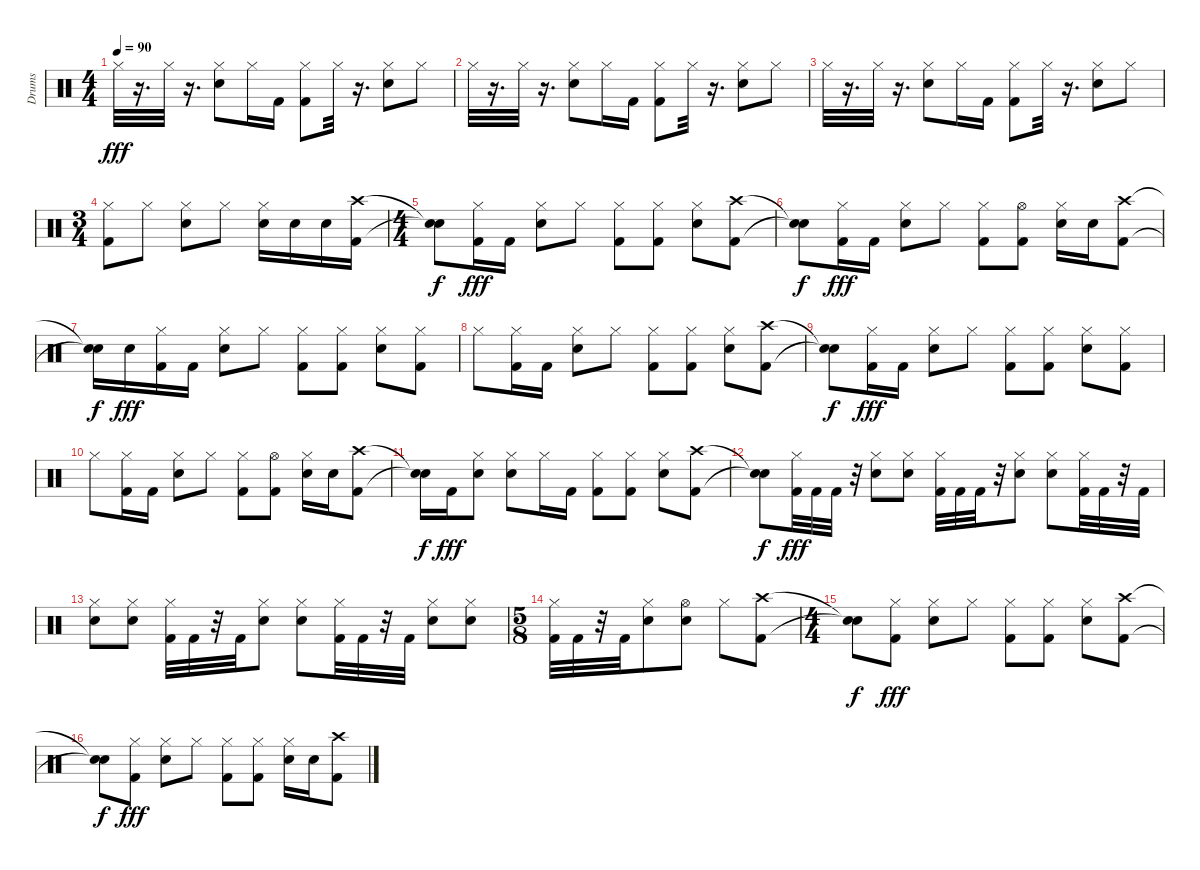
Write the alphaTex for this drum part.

\track ("Drums" "Drums") {instrument percussion}
\staff {score}
\articulation defaults
\ts (4 4)
\tempo 90
\clef neutral
\ks c "Hi-Hat (closed)".32{dy fff}
r.16{d} "Hi-Hat (closed)".32 r.16{d} ("Hi-Hat (closed)" "Electric Snare (hit)").8 "Hi-Hat (closed)".16 "Kick (hit) 2".16 ("Kick (hit) 2" "Hi-Hat (closed)").8 "Hi-Hat (closed)".32 r.16{d} ("Hi-Hat (closed)" "Snare (hit) 2").8 "Hi-Hat (closed)".8 |
"Hi-Hat (closed)".32 r.16{d} "Hi-Hat (closed)".32 r.16{d} ("Hi-Hat (closed)" "Electric Snare (hit)").8 "Hi-Hat (closed)".16 "Kick (hit) 2".16 ("Kick (hit) 2" "Hi-Hat (closed)").8 "Hi-Hat (closed)".32 r.16{d} ("Hi-Hat (closed)" "Snare (hit) 2").8 "Hi-Hat (closed)".8 |
"Hi-Hat (closed)".32 r.16{d} "Hi-Hat (closed)".32 r.16{d} ("Hi-Hat (closed)" "Electric Snare (hit)").8 "Hi-Hat (closed)".16 "Kick (hit) 2".16 ("Kick (hit) 2" "Hi-Hat (closed)").8 "Hi-Hat (closed)".32 r.16{d} ("Hi-Hat (closed)" "Snare (hit) 2").8 "Hi-Hat (closed)".8 |
\ts (3 4)
("Hi-Hat (closed)" "Kick (hit) 2").8 "Hi-Hat (closed)".8 ("Snare (hit) 2" "Hi-Hat (closed)").8 "Hi-Hat (closed)".8 ("Hi-Hat (closed)" "Snare (hit) 2").16 "Snare (hit) 2".16 "Electric Snare (hit)".16 ("Crash high (hit)" "Kick (hit) 2").16 |
\ts (4 4)
("Snare (hit)"{t} "Snare (hit)"{t}).8{dy f} ("Kick (hit) 2" "Hi-Hat (closed)").16{dy fff} "Kick (hit) 2".16 ("Hi-Hat (closed)" "Snare (hit) 2").8 "Hi-Hat (closed)".8 ("Kick (hit) 2" "Hi-Hat (closed)").8 ("Kick (hit) 2" "Hi-Hat (closed)").8 ("Hi-Hat (closed)" "Electric Snare (hit)").8 ("Crash high (hit)" "Kick (hit) 2").8 |
("Snare (hit)"{t} "Snare (hit)"{t}).8{dy f} ("Kick (hit) 2" "Hi-Hat (closed)").16{dy fff} "Kick (hit) 2".16 ("Electric Snare (hit)" "Hi-Hat (closed)").8 "Hi-Hat (closed)".8 ("Kick (hit) 2" "Hi-Hat (closed)").8 ("Kick (hit) 2" "Hi-Hat (open)").8 ("Hi-Hat (closed)" "Snare (hit) 2").16 "Electric Snare (hit)".16 ("Kick (hit) 2" "Crash high (hit)").8 |
("Snare (hit)"{t} "Snare (hit)"{t}).16{dy f} "Snare (hit) 2".16{dy fff} ("Hi-Hat (closed)" "Kick (hit) 2").16 "Kick (hit) 2".16 ("Electric Snare (hit)" "Hi-Hat (closed)").8 "Hi-Hat (closed)".8 ("Kick (hit) 2" "Hi-Hat (closed)").8 ("Hi-Hat (closed)" "Kick (hit) 2").8 ("Hi-Hat (closed)" "Electric Snare (hit)").8 ("Hi-Hat (closed)" "Kick (hit) 2").8 |
"Hi-Hat (closed)".8 ("Hi-Hat (closed)" "Kick (hit) 2").16 "Kick (hit) 2".16 ("Electric Snare (hit)" "Hi-Hat (closed)").8 "Hi-Hat (closed)".8 ("Kick (hit) 2" "Hi-Hat (closed)").8 ("Kick (hit) 2" "Hi-Hat (closed)").8 ("Hi-Hat (closed)" "Electric Snare (hit)").8 ("Kick (hit) 2" "Crash high (hit)").8 |
("Snare (hit)"{t} "Snare (hit)"{t}).8{dy f} ("Hi-Hat (closed)" "Kick (hit) 2").16{dy fff} "Kick (hit) 2".16 ("Electric Snare (hit)" "Hi-Hat (closed)").8 "Hi-Hat (closed)".8 ("Kick (hit) 2" "Hi-Hat (closed)").8 ("Kick (hit) 2" "Hi-Hat (closed)").8 ("Hi-Hat (closed)" "Electric Snare (hit)").8 ("Kick (hit) 2" "Hi-Hat (closed)").8 |
"Hi-Hat (closed)".8 ("Hi-Hat (closed)" "Kick (hit) 2").16 "Kick (hit) 2".16 ("Snare (hit) 2" "Hi-Hat (closed)").8 "Hi-Hat (closed)".8 ("Kick (hit) 2" "Hi-Hat (closed)").8 ("Kick (hit) 2" "Hi-Hat (open)").8 ("Hi-Hat (closed)" "Snare (hit) 2").16 "Snare (hit) 2".16 ("Crash high (hit)" "Kick (hit) 2").8 |
("Snare (hit)"{t} "Snare (hit)"{t}).16{dy f} "Kick (hit) 2".16{dy fff} ("Hi-Hat (closed)" "Snare (hit) 2").8 ("Hi-Hat (closed)" "Electric Snare (hit)").8 "Hi-Hat (closed)".16 "Kick (hit) 2".16 ("Kick (hit) 2" "Hi-Hat (closed)").8 ("Hi-Hat (closed)" "Kick (hit) 2").8 ("Electric Snare (hit)" "Hi-Hat (closed)").8 ("Crash high (hit)" "Kick (hit) 2").8 |
("Snare (hit)"{t} "Snare (hit)"{t}).8{dy f} ("Kick (hit) 2" "Hi-Hat (closed)").32{dy fff} "Kick (hit) 2".32 "Kick (hit) 2".32 r.32 ("Hi-Hat (closed)" "Snare (hit) 2").8 ("Snare (hit) 2" "Hi-Hat (closed)").8 ("Kick (hit) 2" "Hi-Hat (closed)").32 "Kick (hit) 2".32 "Kick (hit) 2".32 r.32 ("Snare (hit) 2" "Hi-Hat (closed)").8 ("Hi-Hat (closed)" "Snare (hit) 2").8 ("Hi-Hat (closed)" "Kick (hit) 2").32 "Kick (hit) 2".32 r.32 "Kick (hit) 2".32 |
("Snare (hit) 2" "Hi-Hat (closed)").8 ("Electric Snare (hit)" "Hi-Hat (closed)").8 ("Kick (hit) 2" "Hi-Hat (closed)").32 "Kick (hit) 2".32 r.32 "Kick (hit) 2".32 ("Electric Snare (hit)" "Hi-Hat (closed)").8 ("Hi-Hat (closed)" "Snare (hit) 2").8 ("Hi-Hat (closed)" "Kick (hit) 2").32 "Kick (hit) 2".32 r.32 "Kick (hit) 2".32 ("Hi-Hat (closed)" "Snare (hit) 2").8 ("Hi-Hat (closed)" "Electric Snare (hit)").8 |
\ts (5 8)
("Kick (hit) 2" "Hi-Hat (closed)").32 "Kick (hit) 2".32 r.32 "Kick (hit) 2".32 ("Hi-Hat (closed)" "Snare (hit) 2").8 ("Snare (hit) 2" "Hi-Hat (open)").8 "Hi-Hat (closed)".8 ("Kick (hit) 2" "Crash high (hit)").8 |
\ts (4 4)
("Snare (hit)"{t} "Snare (hit)"{t}).8{dy f} ("Kick (hit) 2" "Hi-Hat (closed)").8{dy fff} ("Hi-Hat (closed)" "Snare (hit) 2").8 "Hi-Hat (closed)".8 ("Kick (hit) 2" "Hi-Hat (closed)").8 ("Kick (hit) 2" "Hi-Hat (closed)").8 ("Hi-Hat (closed)" "Electric Snare (hit)").8 ("Kick (hit) 2" "Crash high (hit)").8 |
("Snare (hit)"{t} "Snare (hit)"{t}).8{dy f} ("Hi-Hat (closed)" "Kick (hit) 2").8{dy fff} ("Electric Snare (hit)" "Hi-Hat (closed)").8 "Hi-Hat (closed)".8 ("Kick (hit) 2" "Hi-Hat (closed)").8 ("Kick (hit) 2" "Hi-Hat (closed)").8 ("Hi-Hat (closed)" "Snare (hit) 2").16 "Electric Snare (hit)".16 ("Kick (hit) 2" "Crash high (hit)").8
